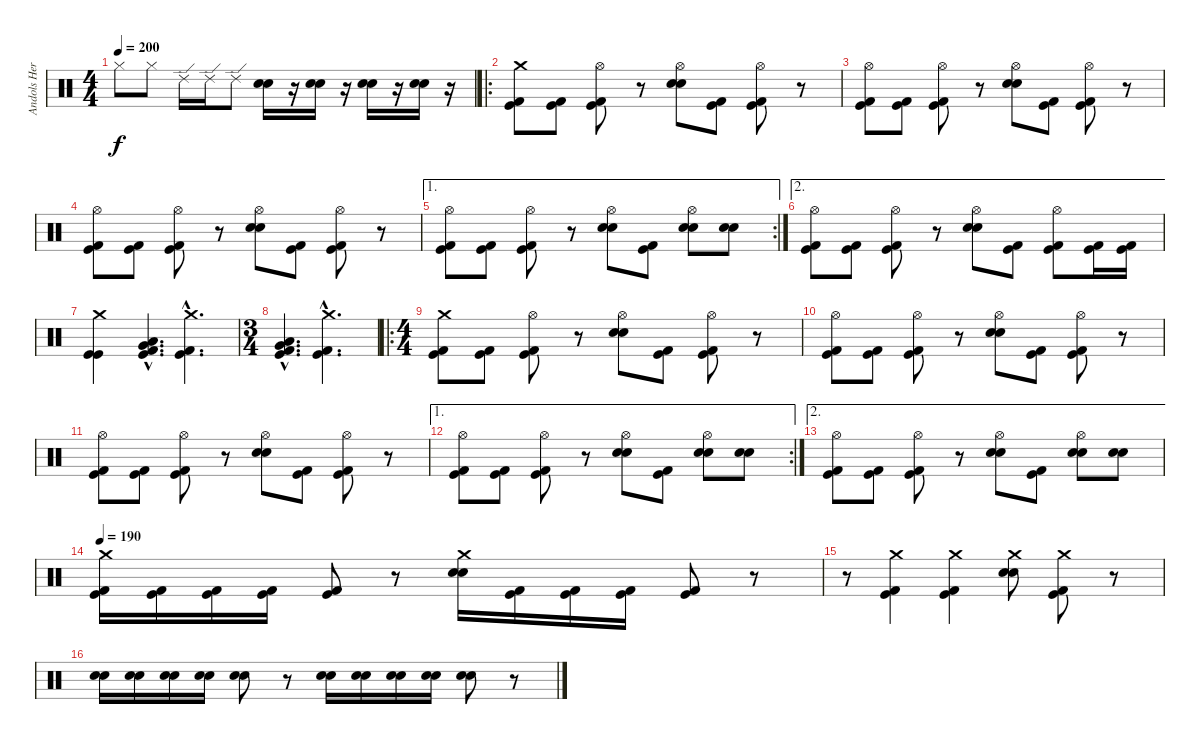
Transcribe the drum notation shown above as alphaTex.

\track ("Andols Herrick" "Andols Her") {instrument percussion}
\staff {score}
\articulation defaults
\ts (4 4)
\tempo 200
\clef neutral
\ks c "Hi-Hat (closed)".8{dy f} "Hi-Hat (closed)".8 "Ride (edge) 2".16 "Ride (edge) 2".16 "Ride (edge) 2".8
("Electric Snare (hit)" "Snare (hit) 2").16 r.16 ("Electric Snare (hit)" "Snare (hit) 2").16 r.16 ("Electric Snare (hit)" "Snare (hit) 2").16 r.16 ("Electric Snare (hit)" "Snare (hit) 2").16 r.16 |
\ro
("Crash medium (hit)" "Kick (hit) 2" "Kick (hit)").8 ("Kick (hit) 2" "Kick (hit)").8 ("Hi-Hat (open)" "Kick (hit) 2" "Kick (hit)").8 r.8 ("Hi-Hat (open)" "Electric Snare (hit)" "Snare (hit) 2").8 ("Kick (hit) 2" "Kick (hit)").8 ("Hi-Hat (open)" "Kick (hit) 2" "Kick (hit)").8 r.8 |
("Hi-Hat (open)" "Kick (hit) 2" "Kick (hit)").8 ("Kick (hit) 2" "Kick (hit)").8 ("Hi-Hat (open)" "Kick (hit) 2" "Kick (hit)").8 r.8 ("Hi-Hat (open)" "Electric Snare (hit)" "Snare (hit) 2").8 ("Kick (hit) 2" "Kick (hit)").8 ("Hi-Hat (open)" "Kick (hit) 2" "Kick (hit)").8 r.8 |
("Hi-Hat (open)" "Kick (hit) 2" "Kick (hit)").8 ("Kick (hit) 2" "Kick (hit)").8 ("Hi-Hat (open)" "Kick (hit) 2" "Kick (hit)").8 r.8 ("Hi-Hat (open)" "Electric Snare (hit)" "Snare (hit) 2").8 ("Kick (hit) 2" "Kick (hit)").8 ("Hi-Hat (open)" "Kick (hit) 2" "Kick (hit)").8 r.8 |
\ae 1
\rc 2
("Hi-Hat (open)" "Kick (hit) 2" "Kick (hit)").8 ("Kick (hit) 2" "Kick (hit)").8 ("Hi-Hat (open)" "Kick (hit) 2" "Kick (hit)").8 r.8 ("Hi-Hat (open)" "Electric Snare (hit)" "Snare (hit) 2").8 ("Kick (hit) 2" "Kick (hit)").8 ("Hi-Hat (open)" "Electric Snare (hit)" "Snare (hit) 2").8 ("Electric Snare (hit)" "Snare (hit) 2").8 |
\ae 2
("Hi-Hat (open)" "Kick (hit) 2" "Kick (hit)").8 ("Kick (hit) 2" "Kick (hit)").8 ("Hi-Hat (open)" "Kick (hit) 2" "Kick (hit)").8 r.8 ("Hi-Hat (open)" "Electric Snare (hit)" "Snare (hit) 2").8 ("Kick (hit) 2" "Kick (hit)").8 ("Hi-Hat (open)" "Kick (hit) 2" "Kick (hit)").8 ("Kick (hit) 2" "Kick (hit)").16 ("Kick (hit) 2" "Kick (hit)").16 |
("Crash medium (hit)" "Kick (hit)" "Kick (hit)").4 ("Low Tom (hit)"{hac} "Very Low Tom (hit)"{hac} "Kick (hit) 2"{hac} "Kick (hit)"{hac}).4{d} ("Crash medium (hit)"{hac} "Kick (hit) 2"{hac} "Kick (hit)"{hac}).4{d} |
\ts (3 4)
("Low Tom (hit)"{hac} "Very Low Tom (hit)"{hac} "Kick (hit) 2"{hac} "Kick (hit)"{hac}).4{d} ("Crash medium (hit)"{hac} "Kick (hit) 2"{hac} "Kick (hit)"{hac}).4{d} |
\ro
\ts (4 4)
("Crash medium (hit)" "Kick (hit) 2" "Kick (hit)").8 ("Kick (hit) 2" "Kick (hit)").8 ("Hi-Hat (open)" "Kick (hit) 2" "Kick (hit)").8 r.8 ("Hi-Hat (open)" "Electric Snare (hit)" "Snare (hit) 2").8 ("Kick (hit) 2" "Kick (hit)").8 ("Hi-Hat (open)" "Kick (hit) 2" "Kick (hit)").8 r.8 |
("Hi-Hat (open)" "Kick (hit) 2" "Kick (hit)").8 ("Kick (hit) 2" "Kick (hit)").8 ("Hi-Hat (open)" "Kick (hit) 2" "Kick (hit)").8 r.8 ("Hi-Hat (open)" "Electric Snare (hit)" "Snare (hit) 2").8 ("Kick (hit) 2" "Kick (hit)").8 ("Hi-Hat (open)" "Kick (hit) 2" "Kick (hit)").8 r.8 |
("Hi-Hat (open)" "Kick (hit) 2" "Kick (hit)").8 ("Kick (hit) 2" "Kick (hit)").8 ("Hi-Hat (open)" "Kick (hit) 2" "Kick (hit)").8 r.8 ("Hi-Hat (open)" "Electric Snare (hit)" "Snare (hit) 2").8 ("Kick (hit) 2" "Kick (hit)").8 ("Hi-Hat (open)" "Kick (hit) 2" "Kick (hit)").8 r.8 |
\ae 1
\rc 2
("Hi-Hat (open)" "Kick (hit) 2" "Kick (hit)").8 ("Kick (hit) 2" "Kick (hit)").8 ("Hi-Hat (open)" "Kick (hit) 2" "Kick (hit)").8 r.8 ("Hi-Hat (open)" "Electric Snare (hit)" "Snare (hit) 2").8 ("Kick (hit) 2" "Kick (hit)").8 ("Hi-Hat (open)" "Electric Snare (hit)" "Snare (hit) 2").8 ("Electric Snare (hit)" "Snare (hit) 2").8 |
\ae 2
("Hi-Hat (open)" "Kick (hit) 2" "Kick (hit)").8 ("Kick (hit) 2" "Kick (hit)").8 ("Hi-Hat (open)" "Kick (hit) 2" "Kick (hit)").8 r.8 ("Hi-Hat (open)" "Electric Snare (hit)" "Snare (hit) 2").8 ("Kick (hit) 2" "Kick (hit)").8 ("Hi-Hat (open)" "Electric Snare (hit)" "Snare (hit) 2").8 ("Electric Snare (hit)" "Snare (hit) 2").8 |
\tempo 190
("Crash medium (hit)" "Kick (hit) 2" "Kick (hit)").16 ("Kick (hit) 2" "Kick (hit)").16 ("Kick (hit) 2" "Kick (hit)").16 ("Kick (hit) 2" "Kick (hit)").16 ("Kick (hit) 2" "Kick (hit)").8 r.8 ("Crash medium (hit)" "Electric Snare (hit)" "Snare (hit) 2").16 ("Kick (hit) 2" "Kick (hit)").16 ("Kick (hit) 2" "Kick (hit)").16 ("Kick (hit) 2" "Kick (hit)").16 ("Kick (hit) 2" "Kick (hit)").8 r.8 |
r.8 ("Crash medium (hit)" "Kick (hit) 2" "Kick (hit)").4 ("Crash medium (hit)" "Kick (hit) 2" "Kick (hit)").4 ("Crash medium (hit)" "Electric Snare (hit)" "Snare (hit) 2").8 ("Crash medium (hit)" "Kick (hit) 2" "Kick (hit)").8 r.8 |
("Electric Snare (hit)" "Snare (hit) 2").16 ("Electric Snare (hit)" "Snare (hit) 2").16 ("Electric Snare (hit)" "Snare (hit) 2").16 ("Electric Snare (hit)" "Snare (hit) 2").16 ("Electric Snare (hit)" "Snare (hit) 2").8 r.8 ("Electric Snare (hit)" "Snare (hit) 2").16 ("Electric Snare (hit)" "Snare (hit) 2").16 ("Electric Snare (hit)" "Snare (hit) 2").16 ("Electric Snare (hit)" "Snare (hit) 2").16 ("Electric Snare (hit)" "Snare (hit) 2").8 r.8
